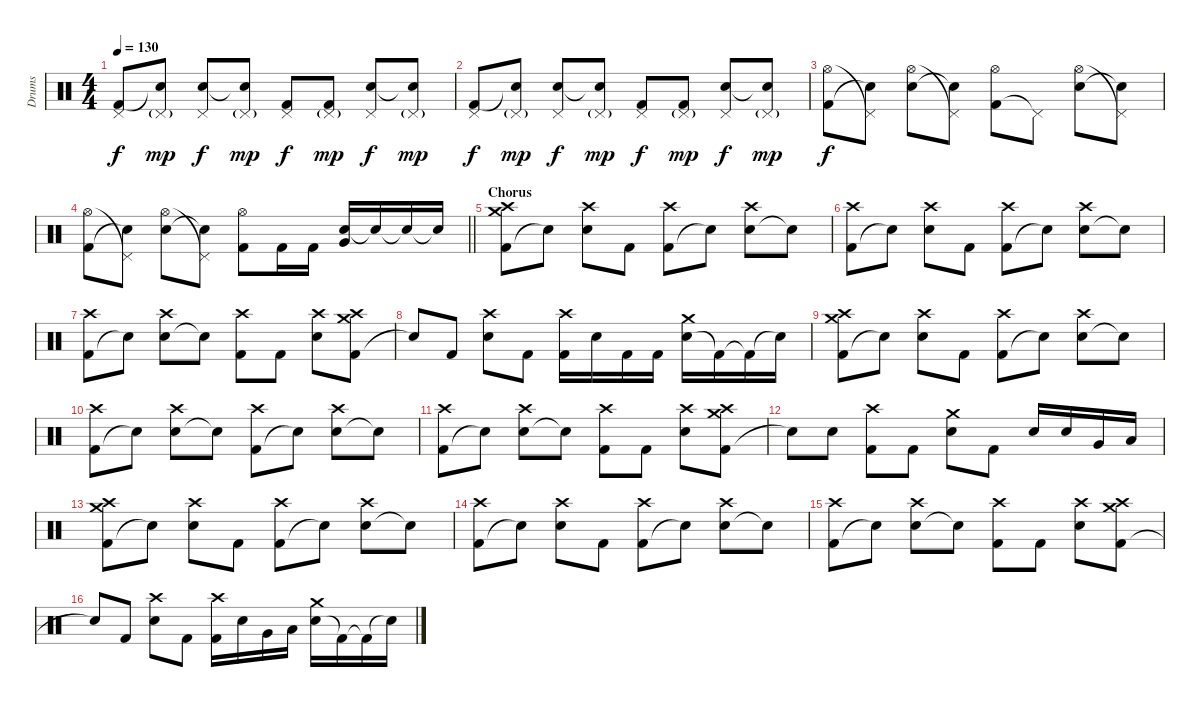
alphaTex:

\track ("Drums" "Drums") {instrument percussion}
\staff {score}
\articulation defaults
\ts (4 4)
\tempo 130
\clef neutral
\ks c
("Kick (hit) 2" "Pedal Hi-Hat (hit)").8{dy f} ("Snare (hit)"{t} "Pedal Hi-Hat (hit)"{g}).8{dy mp} ("Electric Snare (hit)" "Pedal Hi-Hat (hit)").8{dy f} ("Snare (hit)"{t} "Pedal Hi-Hat (hit)"{g}).8{dy mp} ("Kick (hit) 2" "Pedal Hi-Hat (hit)").8{dy f} ("Kick (hit) 2" "Pedal Hi-Hat (hit)"{g}).8{dy mp} ("Electric Snare (hit)" "Pedal Hi-Hat (hit)").8{dy f} ("Snare (hit)"{t} "Pedal Hi-Hat (hit)"{g}).8{dy mp} |
("Kick (hit) 2" "Pedal Hi-Hat (hit)").8{dy f} ("Snare (hit)"{t} "Pedal Hi-Hat (hit)"{g}).8{dy mp} ("Electric Snare (hit)" "Pedal Hi-Hat (hit)").8{dy f} ("Snare (hit)"{t} "Pedal Hi-Hat (hit)"{g}).8{dy mp} ("Kick (hit) 2" "Pedal Hi-Hat (hit)").8{dy f} ("Kick (hit) 2" "Pedal Hi-Hat (hit)"{g}).8{dy mp} ("Electric Snare (hit)" "Pedal Hi-Hat (hit)").8{dy f} ("Snare (hit)"{t} "Pedal Hi-Hat (hit)"{g}).8{dy mp} |
("Kick (hit) 2" "Hi-Hat (open)").8{dy f} ("Snare (hit)"{t} "Pedal Hi-Hat (hit)"{t}).8 ("Electric Snare (hit)" "Hi-Hat (open)").8 ("Snare (hit)"{t} "Pedal Hi-Hat (hit)"{t}).8 ("Kick (hit) 2" "Hi-Hat (open)").8 "Pedal Hi-Hat (hit)"{t}.8 ("Electric Snare (hit)" "Hi-Hat (open)").8 ("Snare (hit)"{t} "Pedal Hi-Hat (hit)"{t}).8 |
\barLineRight lightlight
("Kick (hit) 2" "Hi-Hat (open)").8 ("Snare (hit)"{t} "Pedal Hi-Hat (hit)"{t}).8 ("Electric Snare (hit)" "Hi-Hat (open)").8 ("Snare (hit)"{t} "Pedal Hi-Hat (hit)"{t}).8 ("Kick (hit) 2" "Hi-Hat (open)").8 "Kick (hit) 2".16 "Kick (hit) 2".16 ("Electric Snare (hit)" "Very Low Tom (hit)").16 "Snare (hit)"{t}.16 "Snare (hit)"{t}.16 "Snare (hit)"{t}.16 |
\section ("" "Chorus")
("Kick (hit) 2" "Crash medium (hit)" "Crash high (hit)").8 "Snare (hit)"{t}.8 ("Electric Snare (hit)" "Crash high (hit)").8 "Kick (hit) 2".8 ("Kick (hit) 2" "Crash high (hit)").8 "Snare (hit)"{t}.8 ("Electric Snare (hit)" "Crash high (hit)").8 "Snare (hit)"{t}.8 |
("Kick (hit) 2" "Crash high (hit)").8 "Snare (hit)"{t}.8 ("Electric Snare (hit)" "Crash high (hit)").8 "Kick (hit) 2".8 ("Kick (hit) 2" "Crash high (hit)").8 "Snare (hit)"{t}.8 ("Electric Snare (hit)" "Crash high (hit)").8 "Snare (hit)"{t}.8 |
("Kick (hit) 2" "Crash high (hit)").8 "Snare (hit)"{t}.8 ("Electric Snare (hit)" "Crash high (hit)").8 "Snare (hit)"{t}.8 ("Kick (hit) 2" "Crash high (hit)").8 "Kick (hit) 2".8 ("Electric Snare (hit)" "Crash high (hit)").8 ("Kick (hit) 2" "Crash medium (hit)" "Crash high (hit)").8 |
"Snare (hit)"{t}.8 "Kick (hit) 2".8 ("Electric Snare (hit)" "Crash high (hit)").8 "Kick (hit) 2".8 ("Kick (hit) 2" "Crash high (hit)").16 "Electric Snare (hit)".16 "Kick (hit) 2".16 "Kick (hit) 2".16 ("Electric Snare (hit)" "Crash medium (hit)").16 "Kick (hit) 2"{t}.16 "Kick (hit) 2"{t}.16 "Snare (hit)"{t}.16 |
("Kick (hit) 2" "Crash medium (hit)" "Crash high (hit)").8 "Snare (hit)"{t}.8 ("Electric Snare (hit)" "Crash high (hit)").8 "Kick (hit) 2".8 ("Kick (hit) 2" "Crash high (hit)").8 "Snare (hit)"{t}.8 ("Electric Snare (hit)" "Crash high (hit)").8 "Snare (hit)"{t}.8 |
("Kick (hit) 2" "Crash high (hit)").8 "Snare (hit)"{t}.8 ("Electric Snare (hit)" "Crash high (hit)").8 "Snare (hit)"{t}.8 ("Kick (hit) 2" "Crash high (hit)").8 "Snare (hit)"{t}.8 ("Electric Snare (hit)" "Crash high (hit)").8 "Snare (hit)"{t}.8 |
("Kick (hit) 2" "Crash high (hit)").8 "Snare (hit)"{t}.8 ("Electric Snare (hit)" "Crash high (hit)").8 "Snare (hit)"{t}.8 ("Kick (hit) 2" "Crash high (hit)").8 "Kick (hit) 2".8 ("Electric Snare (hit)" "Crash high (hit)").8 ("Kick (hit) 2" "Crash medium (hit)" "Crash high (hit)").8 |
"Snare (hit)"{t}.8 "Electric Snare (hit)".8 ("Kick (hit) 2" "Crash high (hit)").8 "Kick (hit) 2".8 ("Electric Snare (hit)" "Crash medium (hit)").8 "Kick (hit) 2".8 "Electric Snare (hit)".16 "Electric Snare (hit)".16 "Very Low Tom (hit)".16 "Low Floor Tom (hit)".16 |
("Kick (hit) 2" "Crash medium (hit)" "Crash high (hit)").8 "Snare (hit)"{t}.8 ("Electric Snare (hit)" "Crash high (hit)").8 "Kick (hit) 2".8 ("Kick (hit) 2" "Crash high (hit)").8 "Snare (hit)"{t}.8 ("Electric Snare (hit)" "Crash high (hit)").8 "Snare (hit)"{t}.8 |
("Kick (hit) 2" "Crash high (hit)").8 "Snare (hit)"{t}.8 ("Electric Snare (hit)" "Crash high (hit)").8 "Kick (hit) 2".8 ("Kick (hit) 2" "Crash high (hit)").8 "Snare (hit)"{t}.8 ("Electric Snare (hit)" "Crash high (hit)").8 "Snare (hit)"{t}.8 |
("Kick (hit) 2" "Crash high (hit)").8 "Snare (hit)"{t}.8 ("Electric Snare (hit)" "Crash high (hit)").8 "Snare (hit)"{t}.8 ("Kick (hit) 2" "Crash high (hit)").8 "Kick (hit) 2".8 ("Electric Snare (hit)" "Crash high (hit)").8 ("Kick (hit) 2" "Crash medium (hit)" "Crash high (hit)").8 |
"Snare (hit)"{t}.8 "Kick (hit) 2".8 ("Electric Snare (hit)" "Crash high (hit)").8 "Kick (hit) 2".8 ("Kick (hit) 2" "Crash high (hit)").16 "Electric Snare (hit)".16 "Very Low Tom (hit)".16 "Low Floor Tom (hit)".16 ("Electric Snare (hit)" "Crash medium (hit)").16 "Kick (hit) 2"{t}.16 "Kick (hit) 2"{t}.16 "Snare (hit)"{t}.16
